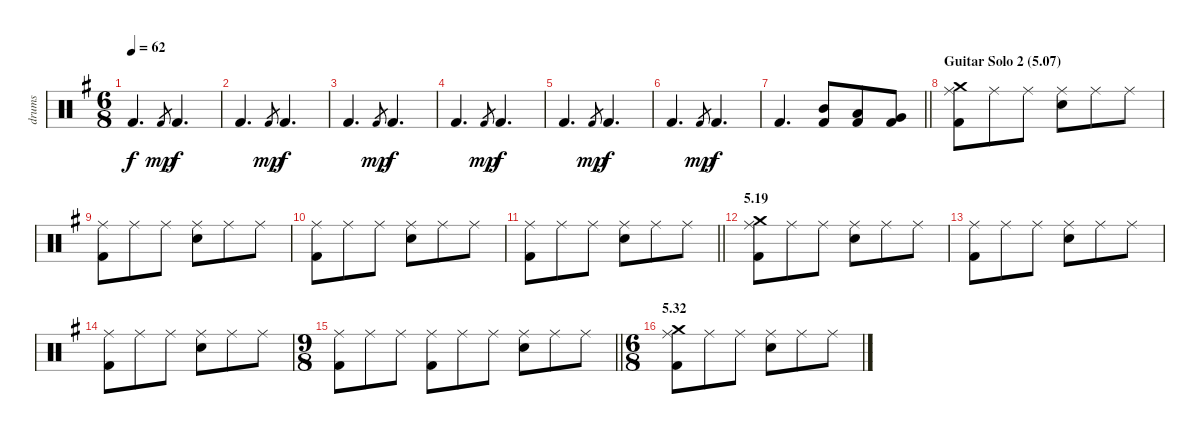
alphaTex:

\track ("drums" "drums") {instrument percussion}
\staff {score}
\articulation defaults
\ts (6 8)
\tempo 62
\clef neutral
\ks g "Kick (hit) 2".4{d dy f} "Kick (hit) 2".8{gr dy mp} "Kick (hit) 2".4{d dy f}
|
"Kick (hit) 2".4{d} "Kick (hit) 2".8{gr dy mp} "Kick (hit) 2".4{d dy f} |
"Kick (hit) 2".4{d} "Kick (hit) 2".8{gr dy mp} "Kick (hit) 2".4{d dy f} |
"Kick (hit) 2".4{d} "Kick (hit) 2".8{gr dy mp} "Kick (hit) 2".4{d dy f} |
"Kick (hit) 2".4{d} "Kick (hit) 2".8{gr dy mp} "Kick (hit) 2".4{d dy f} |
"Kick (hit) 2".4{d} "Kick (hit) 2".8{gr dy mp} "Kick (hit) 2".4{d dy f} |
\barLineRight lightlight "Kick (hit) 2".4{d}
("Mid Tom (hit)" "Kick (hit) 2").8 ("Low Tom (hit)" "Kick (hit) 2").8 ("Very Low Tom (hit)" "Kick (hit) 2").8 |
\section ("" "Guitar Solo 2 (5.07)")
("Ride (middle)" "Crash medium (hit)" "Kick (hit) 2").8 "Ride (middle)".8 "Ride (middle)".8 ("Ride (middle)" "Electric Snare (hit)").8 "Ride (middle)".8 "Ride (middle)".8 |
("Ride (middle)" "Kick (hit) 2").8 "Ride (middle)".8 "Ride (middle)".8 ("Ride (middle)" "Electric Snare (hit)").8 "Ride (middle)".8 "Ride (middle)".8 |
("Ride (middle)" "Kick (hit) 2").8 "Ride (middle)".8 "Ride (middle)".8 ("Ride (middle)" "Electric Snare (hit)").8 "Ride (middle)".8 "Ride (middle)".8 |
\barLineRight lightlight
("Ride (middle)" "Kick (hit) 2").8 "Ride (middle)".8 "Ride (middle)".8 ("Ride (middle)" "Electric Snare (hit)").8 "Ride (middle)".8 "Ride (middle)".8 |
\section ("" "5.19")
("Ride (middle)" "Crash medium (hit)" "Kick (hit) 2").8 "Ride (middle)".8 "Ride (middle)".8 ("Ride (middle)" "Electric Snare (hit)").8 "Ride (middle)".8 "Ride (middle)".8 |
("Ride (middle)" "Kick (hit) 2").8 "Ride (middle)".8 "Ride (middle)".8 ("Ride (middle)" "Electric Snare (hit)").8 "Ride (middle)".8 "Ride (middle)".8 |
("Ride (middle)" "Kick (hit) 2").8 "Ride (middle)".8 "Ride (middle)".8 ("Ride (middle)" "Electric Snare (hit)").8 "Ride (middle)".8 "Ride (middle)".8 |
\ts (9 8)
\barLineRight lightlight
("Ride (middle)" "Kick (hit) 2").8 "Ride (middle)".8 "Ride (middle)".8 ("Ride (middle)" "Kick (hit) 2").8 "Ride (middle)".8 "Ride (middle)".8 ("Ride (middle)" "Electric Snare (hit)").8 "Ride (middle)".8 "Ride (middle)".8 |
\ts (6 8)
\section ("" "5.32")
("Ride (middle)" "Crash medium (hit)" "Kick (hit) 2").8 "Ride (middle)".8 "Ride (middle)".8 ("Ride (middle)" "Electric Snare (hit)").8 "Ride (middle)".8 "Ride (middle)".8
